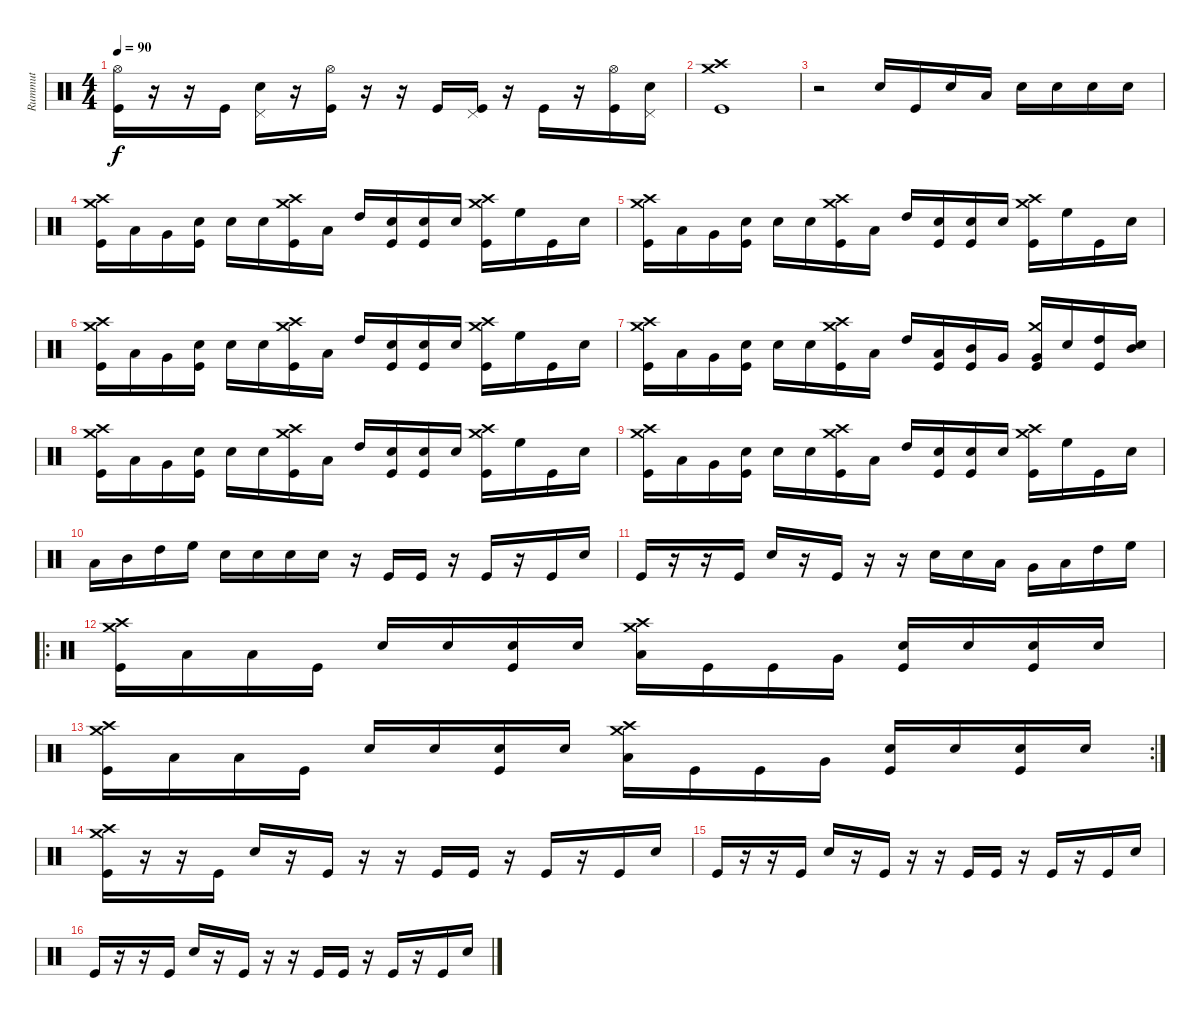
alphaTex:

\track ("Rummut" "Rummut") {instrument percussion}
\staff {score}
\articulation defaults
\ts (4 4)
\tempo 90
\clef neutral
\ks c
("Hi-Hat (open)" "Kick (hit)").16{dy f} r.16 r.16 "Kick (hit)".16 ("Pedal Hi-Hat (hit)" "Snare (hit) 2").16 r.16 ("Hi-Hat (open)" "Kick (hit)").16 r.16 r.16 "Kick (hit)".16 ("Pedal Hi-Hat (hit)" "Kick (hit)").16 r.16 "Kick (hit)".16 r.16 ("Hi-Hat (open)" "Kick (hit)").16 ("Pedal Hi-Hat (hit)" "Snare (hit) 2").16 |
("Crash medium (hit)" "Crash high (hit)" "Kick (hit)").1 |
r.2 "Snare (hit) 2".16 "Kick (hit)".16 "Snare (hit) 2".16 "Low Floor Tom (hit)".16 "Snare (hit) 2".16 "Snare (hit) 2".16 "Snare (hit) 2".16 "Snare (hit) 2".16 |
("Crash medium (hit)" "Crash high (hit)" "Kick (hit)").16 "Low Floor Tom (hit)".16 "Very Low Tom (hit)".16 ("Snare (hit) 2" "Kick (hit)").16 "Snare (hit) 2".16 "Snare (hit) 2".16 ("Crash medium (hit)" "Crash high (hit)" "Kick (hit)").16 "Low Tom (hit)".16 "High Tom (hit)".16 ("Snare (hit) 2" "Kick (hit)").16 ("Snare (hit) 2" "Kick (hit)").16 "Snare (hit) 2".16 ("Crash medium (hit)" "Crash high (hit)" "Kick (hit)").16 "High Floor Tom (hit)".16 "Kick (hit)".16 "Snare (hit) 2".16 |
("Crash medium (hit)" "Crash high (hit)" "Kick (hit)").16 "Low Floor Tom (hit)".16 "Very Low Tom (hit)".16 ("Snare (hit) 2" "Kick (hit)").16 "Snare (hit) 2".16 "Snare (hit) 2".16 ("Crash medium (hit)" "Crash high (hit)" "Kick (hit)").16 "Low Tom (hit)".16 "High Tom (hit)".16 ("Snare (hit) 2" "Kick (hit)").16 ("Snare (hit) 2" "Kick (hit)").16 "Snare (hit) 2".16 ("Crash medium (hit)" "Crash high (hit)" "Kick (hit)").16 "High Floor Tom (hit)".16 "Kick (hit)".16 "Snare (hit) 2".16 |
("Crash medium (hit)" "Crash high (hit)" "Kick (hit)").16 "Low Floor Tom (hit)".16 "Very Low Tom (hit)".16 ("Snare (hit) 2" "Kick (hit)").16 "Snare (hit) 2".16 "Snare (hit) 2".16 ("Crash medium (hit)" "Crash high (hit)" "Kick (hit)").16 "Low Tom (hit)".16 "High Tom (hit)".16 ("Snare (hit) 2" "Kick (hit)").16 ("Snare (hit) 2" "Kick (hit)").16 "Snare (hit) 2".16 ("Crash medium (hit)" "Crash high (hit)" "Kick (hit)").16 "High Floor Tom (hit)".16 "Kick (hit)".16 "Snare (hit) 2".16 |
("Crash medium (hit)" "Crash high (hit)" "Kick (hit)").16 "Low Floor Tom (hit)".16 "Very Low Tom (hit)".16 ("Snare (hit) 2" "Kick (hit)").16 "Snare (hit) 2".16 "Snare (hit) 2".16 ("Crash medium (hit)" "Crash high (hit)" "Kick (hit)").16 "Low Tom (hit)".16 "High Tom (hit)".16 ("Low Tom (hit)" "Kick (hit)").16 ("Mid Tom (hit)" "Kick (hit)").16 "Very Low Tom (hit)".16 ("Crash medium (hit)" "Very Low Tom (hit)" "Kick (hit)").16 "Snare (hit) 2".16 ("High Tom (hit)" "Kick (hit)").16 ("Mid Tom (hit)" "Snare (hit) 2").16 |
("Crash medium (hit)" "Crash high (hit)" "Kick (hit)").16 "Low Floor Tom (hit)".16 "Very Low Tom (hit)".16 ("Snare (hit) 2" "Kick (hit)").16 "Snare (hit) 2".16 "Snare (hit) 2".16 ("Crash medium (hit)" "Crash high (hit)" "Kick (hit)").16 "Low Tom (hit)".16 "High Tom (hit)".16 ("Snare (hit) 2" "Kick (hit)").16 ("Snare (hit) 2" "Kick (hit)").16 "Snare (hit) 2".16 ("Crash medium (hit)" "Crash high (hit)" "Kick (hit)").16 "High Floor Tom (hit)".16 "Kick (hit)".16 "Snare (hit) 2".16 |
("Crash medium (hit)" "Crash high (hit)" "Kick (hit)").16 "Low Floor Tom (hit)".16 "Very Low Tom (hit)".16 ("Snare (hit) 2" "Kick (hit)").16 "Snare (hit) 2".16 "Snare (hit) 2".16 ("Crash medium (hit)" "Crash high (hit)" "Kick (hit)").16 "Low Tom (hit)".16 "High Tom (hit)".16 ("Snare (hit) 2" "Kick (hit)").16 ("Snare (hit) 2" "Kick (hit)").16 "Snare (hit) 2".16 ("Crash medium (hit)" "Crash high (hit)" "Kick (hit)").16 "High Floor Tom (hit)".16 "Kick (hit)".16 "Snare (hit) 2".16 |
"Low Tom (hit)".16 "Mid Tom (hit)".16 "High Tom (hit)".16 "High Floor Tom (hit)".16 "Snare (hit) 2".16 "Snare (hit) 2".16 "Snare (hit) 2".16 "Snare (hit) 2".16 r.16 "Kick (hit)".16 "Kick (hit)".16 r.16 "Kick (hit)".16 r.16 "Kick (hit)".16 "Snare (hit) 2".16 |
"Kick (hit)".16 r.16 r.16 "Kick (hit)".16 "Snare (hit) 2".16 r.16 "Kick (hit)".16 r.16 r.16 "Snare (hit) 2".16 "Snare (hit) 2".16 "Low Floor Tom (hit)".16 "Very Low Tom (hit)".16 "Low Tom (hit)".16 "High Tom (hit)".16 "High Floor Tom (hit)".16 |
\ro
("Crash medium (hit)" "Crash high (hit)" "Kick (hit)").16 "Low Tom (hit)".16 "Low Floor Tom (hit)".16 "Kick (hit)".16 "Snare (hit) 2".16 "Snare (hit) 2".16 ("Snare (hit) 2" "Kick (hit)").16 "Snare (hit) 2".16 ("Crash medium (hit)" "Crash high (hit)" "Low Floor Tom (hit)").16 "Kick (hit)".16 "Kick (hit)".16 "Very Low Tom (hit)".16 ("Snare (hit) 2" "Kick (hit)").16 "Snare (hit) 2".16 ("Snare (hit) 2" "Kick (hit)").16 "Snare (hit) 2".16 |
\rc 2
("Crash medium (hit)" "Crash high (hit)" "Kick (hit)").16 "Low Tom (hit)".16 "Low Floor Tom (hit)".16 "Kick (hit)".16 "Snare (hit) 2".16 "Snare (hit) 2".16 ("Snare (hit) 2" "Kick (hit)").16 "Snare (hit) 2".16 ("Crash medium (hit)" "Crash high (hit)" "Low Floor Tom (hit)").16 "Kick (hit)".16 "Kick (hit)".16 "Very Low Tom (hit)".16 ("Snare (hit) 2" "Kick (hit)").16 "Snare (hit) 2".16 ("Snare (hit) 2" "Kick (hit)").16 "Snare (hit) 2".16 |
("Crash medium (hit)" "Crash high (hit)" "Kick (hit)").16 r.16 r.16 "Kick (hit)".16 "Snare (hit) 2".16 r.16 "Kick (hit)".16 r.16 r.16 "Kick (hit)".16 "Kick (hit)".16 r.16 "Kick (hit)".16 r.16 "Kick (hit)".16 "Snare (hit) 2".16 |
"Kick (hit)".16 r.16 r.16 "Kick (hit)".16 "Snare (hit) 2".16 r.16 "Kick (hit)".16 r.16 r.16 "Kick (hit)".16 "Kick (hit)".16 r.16 "Kick (hit)".16 r.16 "Kick (hit)".16 "Snare (hit) 2".16 |
"Kick (hit)".16 r.16 r.16 "Kick (hit)".16 "Snare (hit) 2".16 r.16 "Kick (hit)".16 r.16 r.16 "Kick (hit)".16 "Kick (hit)".16 r.16 "Kick (hit)".16 r.16 "Kick (hit)".16 "Snare (hit) 2".16
